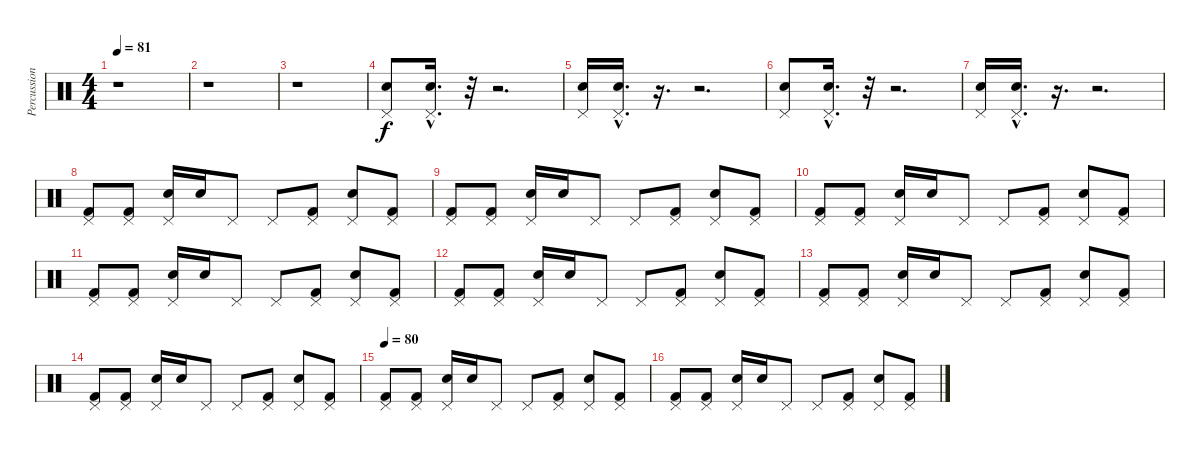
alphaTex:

\track ("Percussion" "Percussion") {instrument percussion}
\staff {score}
\articulation defaults
\ts (4 4)
\tempo 81
\clef neutral
\ks c
r.1{dy f} |
r.1 |
r.1 |
("Pedal Hi-Hat (hit)" "Snare (hit) 2").8 ("Pedal Hi-Hat (hit)"{hac} "Snare (hit) 2"{hac}).16{d} r.32 r.2{d} |
("Pedal Hi-Hat (hit)" "Snare (hit) 2").16 ("Pedal Hi-Hat (hit)"{hac} "Snare (hit) 2"{hac}).16{d} r.16{d} r.2{d} |
("Pedal Hi-Hat (hit)" "Snare (hit) 2").8 ("Pedal Hi-Hat (hit)"{hac} "Snare (hit) 2"{hac}).16{d} r.32 r.2{d} |
("Pedal Hi-Hat (hit)" "Snare (hit) 2").16 ("Pedal Hi-Hat (hit)"{hac} "Snare (hit) 2"{hac}).16{d} r.16{d} r.2{d} |
("Pedal Hi-Hat (hit)" "Kick (hit) 2").8 ("Pedal Hi-Hat (hit)" "Kick (hit) 2").8 ("Pedal Hi-Hat (hit)" "Snare (hit) 2").16 "Snare (hit) 2".16 "Pedal Hi-Hat (hit)".8 "Pedal Hi-Hat (hit)".8 ("Pedal Hi-Hat (hit)" "Kick (hit) 2").8 ("Pedal Hi-Hat (hit)" "Snare (hit) 2").8 ("Pedal Hi-Hat (hit)" "Kick (hit) 2").8 |
("Pedal Hi-Hat (hit)" "Kick (hit) 2").8 ("Pedal Hi-Hat (hit)" "Kick (hit) 2").8 ("Pedal Hi-Hat (hit)" "Snare (hit) 2").16 "Snare (hit) 2".16 "Pedal Hi-Hat (hit)".8 "Pedal Hi-Hat (hit)".8 ("Pedal Hi-Hat (hit)" "Kick (hit) 2").8 ("Pedal Hi-Hat (hit)" "Snare (hit) 2").8 ("Pedal Hi-Hat (hit)" "Kick (hit) 2").8 |
("Pedal Hi-Hat (hit)" "Kick (hit) 2").8 ("Pedal Hi-Hat (hit)" "Kick (hit) 2").8 ("Pedal Hi-Hat (hit)" "Snare (hit) 2").16 "Snare (hit) 2".16 "Pedal Hi-Hat (hit)".8 "Pedal Hi-Hat (hit)".8 ("Pedal Hi-Hat (hit)" "Kick (hit) 2").8 ("Pedal Hi-Hat (hit)" "Snare (hit) 2").8 ("Pedal Hi-Hat (hit)" "Kick (hit) 2").8 |
("Pedal Hi-Hat (hit)" "Kick (hit) 2").8 ("Pedal Hi-Hat (hit)" "Kick (hit) 2").8 ("Pedal Hi-Hat (hit)" "Snare (hit) 2").16 "Snare (hit) 2".16 "Pedal Hi-Hat (hit)".8 "Pedal Hi-Hat (hit)".8 ("Pedal Hi-Hat (hit)" "Kick (hit) 2").8 ("Pedal Hi-Hat (hit)" "Snare (hit) 2").8 ("Pedal Hi-Hat (hit)" "Kick (hit) 2").8 |
("Pedal Hi-Hat (hit)" "Kick (hit) 2").8 ("Pedal Hi-Hat (hit)" "Kick (hit) 2").8 ("Pedal Hi-Hat (hit)" "Snare (hit) 2").16 "Snare (hit) 2".16 "Pedal Hi-Hat (hit)".8 "Pedal Hi-Hat (hit)".8 ("Pedal Hi-Hat (hit)" "Kick (hit) 2").8 ("Pedal Hi-Hat (hit)" "Snare (hit) 2").8 ("Pedal Hi-Hat (hit)" "Kick (hit) 2").8 |
("Pedal Hi-Hat (hit)" "Kick (hit) 2").8 ("Pedal Hi-Hat (hit)" "Kick (hit) 2").8 ("Pedal Hi-Hat (hit)" "Snare (hit) 2").16 "Snare (hit) 2".16 "Pedal Hi-Hat (hit)".8 "Pedal Hi-Hat (hit)".8 ("Pedal Hi-Hat (hit)" "Kick (hit) 2").8 ("Pedal Hi-Hat (hit)" "Snare (hit) 2").8 ("Pedal Hi-Hat (hit)" "Kick (hit) 2").8 |
("Pedal Hi-Hat (hit)" "Kick (hit) 2").8 ("Pedal Hi-Hat (hit)" "Kick (hit) 2").8 ("Pedal Hi-Hat (hit)" "Snare (hit) 2").16 "Snare (hit) 2".16 "Pedal Hi-Hat (hit)".8 "Pedal Hi-Hat (hit)".8 ("Pedal Hi-Hat (hit)" "Kick (hit) 2").8 ("Pedal Hi-Hat (hit)" "Snare (hit) 2").8 ("Pedal Hi-Hat (hit)" "Kick (hit) 2").8 |
\tempo 80
("Pedal Hi-Hat (hit)" "Kick (hit) 2").8 ("Pedal Hi-Hat (hit)" "Kick (hit) 2").8 ("Pedal Hi-Hat (hit)" "Snare (hit) 2").16 "Snare (hit) 2".16 "Pedal Hi-Hat (hit)".8 "Pedal Hi-Hat (hit)".8 ("Pedal Hi-Hat (hit)" "Kick (hit) 2").8 ("Pedal Hi-Hat (hit)" "Snare (hit) 2").8 ("Pedal Hi-Hat (hit)" "Kick (hit) 2").8 |
("Pedal Hi-Hat (hit)" "Kick (hit) 2").8 ("Pedal Hi-Hat (hit)" "Kick (hit) 2").8 ("Pedal Hi-Hat (hit)" "Snare (hit) 2").16 "Snare (hit) 2".16 "Pedal Hi-Hat (hit)".8 "Pedal Hi-Hat (hit)".8 ("Pedal Hi-Hat (hit)" "Kick (hit) 2").8 ("Pedal Hi-Hat (hit)" "Snare (hit) 2").8 ("Pedal Hi-Hat (hit)" "Kick (hit) 2").8
